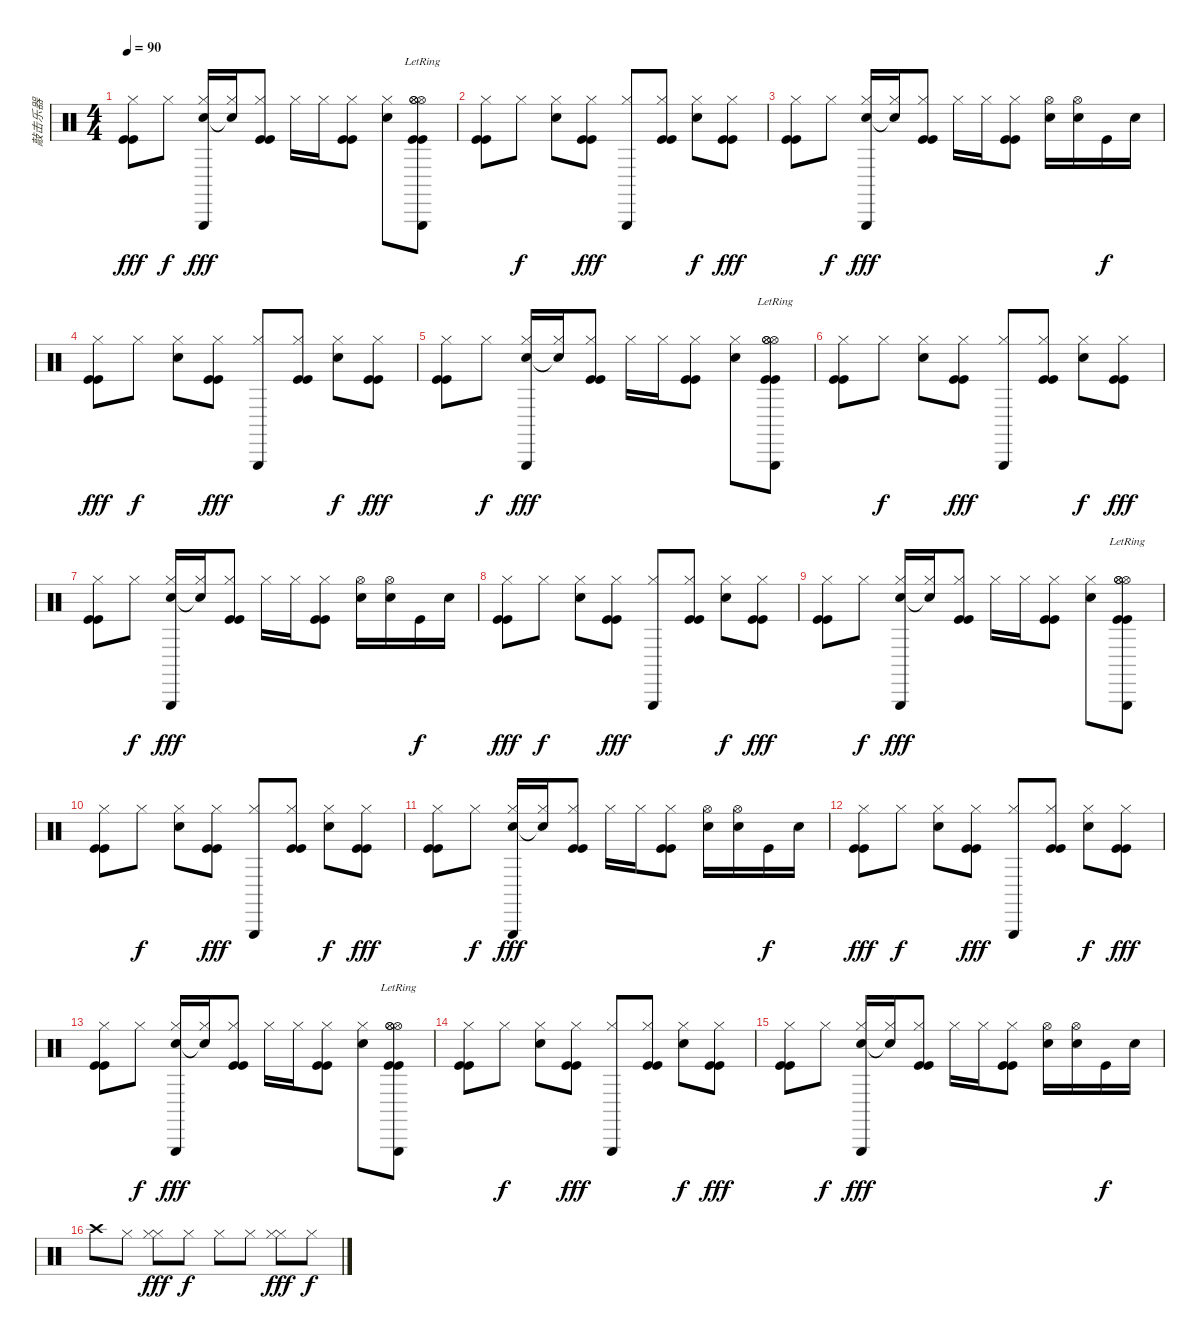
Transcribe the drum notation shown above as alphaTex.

\track ("敲击乐器" "敲击乐器") {instrument percussion}
\staff {score}
\articulation defaults
\ts (4 4)
\tempo 90
\clef neutral
\ks c
("Hi-Hat (closed)" "Kick (hit)" "Kick (hit)").8{dy fff} "Hi-Hat (closed)".8{dy f} ("Hi-Hat (closed)" "Electric Snare (hit)" "Triangle (hit)").16{dy fff} ("Hi-Hat (closed)" "Snare (hit)"{t}).16 ("Hi-Hat (closed)" "Kick (hit)" "Kick (hit)").8 "Hi-Hat (closed)".16 "Hi-Hat (closed)".16 ("Hi-Hat (closed)" "Kick (hit)" "Kick (hit)").8 ("Hi-Hat (closed)" "Electric Snare (hit)").8 ("Hi-Hat (open)" "Hi-Hat (open)" "Hi-Hat (open)" "Triangle (hit)"{lr} "Kick (hit)" "Kick (hit)").8 |
("Hi-Hat (closed)" "Kick (hit)" "Kick (hit)").8 "Hi-Hat (closed)".8{dy f} ("Hi-Hat (closed)" "Electric Snare (hit)").8 ("Hi-Hat (closed)" "Kick (hit)" "Kick (hit)").8{dy fff} ("Hi-Hat (closed)" "Triangle (hit)").8 ("Hi-Hat (closed)" "Kick (hit)" "Kick (hit)").8 ("Hi-Hat (closed)" "Electric Snare (hit)").8{dy f} ("Hi-Hat (closed)" "Kick (hit)" "Kick (hit)").8{dy fff} |
("Hi-Hat (closed)" "Kick (hit)" "Kick (hit)").8 "Hi-Hat (closed)".8{dy f} ("Hi-Hat (closed)" "Electric Snare (hit)" "Triangle (hit)").16{dy fff} ("Hi-Hat (closed)" "Snare (hit)"{t}).16 ("Hi-Hat (closed)" "Kick (hit)" "Kick (hit)").8 "Hi-Hat (closed)".16 "Hi-Hat (closed)".16 ("Hi-Hat (closed)" "Kick (hit)" "Kick (hit)").8 ("Hi-Hat (open)" "Electric Snare (hit)").16 ("Hi-Hat (open)" "Electric Snare (hit)").16 "Kick (hit)".16{dy f} "Electric Snare (hit)".16 |
("Hi-Hat (closed)" "Kick (hit)" "Kick (hit)").8{dy fff} "Hi-Hat (closed)".8{dy f} ("Hi-Hat (closed)" "Electric Snare (hit)").8 ("Hi-Hat (closed)" "Kick (hit)" "Kick (hit)").8{dy fff} ("Hi-Hat (closed)" "Triangle (hit)").8 ("Hi-Hat (closed)" "Kick (hit)" "Kick (hit)").8 ("Hi-Hat (closed)" "Electric Snare (hit)").8{dy f} ("Hi-Hat (closed)" "Kick (hit)" "Kick (hit)").8{dy fff} |
("Hi-Hat (closed)" "Kick (hit)" "Kick (hit)").8 "Hi-Hat (closed)".8{dy f} ("Hi-Hat (closed)" "Electric Snare (hit)" "Triangle (hit)").16{dy fff} ("Hi-Hat (closed)" "Snare (hit)"{t}).16 ("Hi-Hat (closed)" "Kick (hit)" "Kick (hit)").8 "Hi-Hat (closed)".16 "Hi-Hat (closed)".16 ("Hi-Hat (closed)" "Kick (hit)" "Kick (hit)").8 ("Hi-Hat (closed)" "Electric Snare (hit)").8 ("Hi-Hat (open)" "Hi-Hat (open)" "Hi-Hat (open)" "Triangle (hit)"{lr} "Kick (hit)" "Kick (hit)").8 |
("Hi-Hat (closed)" "Kick (hit)" "Kick (hit)").8 "Hi-Hat (closed)".8{dy f} ("Hi-Hat (closed)" "Electric Snare (hit)").8 ("Hi-Hat (closed)" "Kick (hit)" "Kick (hit)").8{dy fff} ("Hi-Hat (closed)" "Triangle (hit)").8 ("Hi-Hat (closed)" "Kick (hit)" "Kick (hit)").8 ("Hi-Hat (closed)" "Electric Snare (hit)").8{dy f} ("Hi-Hat (closed)" "Kick (hit)" "Kick (hit)").8{dy fff} |
("Hi-Hat (closed)" "Kick (hit)" "Kick (hit)").8 "Hi-Hat (closed)".8{dy f} ("Hi-Hat (closed)" "Electric Snare (hit)" "Triangle (hit)").16{dy fff} ("Hi-Hat (closed)" "Snare (hit)"{t}).16 ("Hi-Hat (closed)" "Kick (hit)" "Kick (hit)").8 "Hi-Hat (closed)".16 "Hi-Hat (closed)".16 ("Hi-Hat (closed)" "Kick (hit)" "Kick (hit)").8 ("Hi-Hat (open)" "Electric Snare (hit)").16 ("Hi-Hat (open)" "Electric Snare (hit)").16 "Kick (hit)".16{dy f} "Electric Snare (hit)".16 |
("Hi-Hat (closed)" "Kick (hit)" "Kick (hit)").8{dy fff} "Hi-Hat (closed)".8{dy f} ("Hi-Hat (closed)" "Electric Snare (hit)").8 ("Hi-Hat (closed)" "Kick (hit)" "Kick (hit)").8{dy fff} ("Hi-Hat (closed)" "Triangle (hit)").8 ("Hi-Hat (closed)" "Kick (hit)" "Kick (hit)").8 ("Hi-Hat (closed)" "Electric Snare (hit)").8{dy f} ("Hi-Hat (closed)" "Kick (hit)" "Kick (hit)").8{dy fff} |
("Hi-Hat (closed)" "Kick (hit)" "Kick (hit)").8 "Hi-Hat (closed)".8{dy f} ("Hi-Hat (closed)" "Electric Snare (hit)" "Triangle (hit)").16{dy fff} ("Hi-Hat (closed)" "Snare (hit)"{t}).16 ("Hi-Hat (closed)" "Kick (hit)" "Kick (hit)").8 "Hi-Hat (closed)".16 "Hi-Hat (closed)".16 ("Hi-Hat (closed)" "Kick (hit)" "Kick (hit)").8 ("Hi-Hat (closed)" "Electric Snare (hit)").8 ("Hi-Hat (open)" "Hi-Hat (open)" "Hi-Hat (open)" "Triangle (hit)"{lr} "Kick (hit)" "Kick (hit)").8 |
("Hi-Hat (closed)" "Kick (hit)" "Kick (hit)").8 "Hi-Hat (closed)".8{dy f} ("Hi-Hat (closed)" "Electric Snare (hit)").8 ("Hi-Hat (closed)" "Kick (hit)" "Kick (hit)").8{dy fff} ("Hi-Hat (closed)" "Triangle (hit)").8 ("Hi-Hat (closed)" "Kick (hit)" "Kick (hit)").8 ("Hi-Hat (closed)" "Electric Snare (hit)").8{dy f} ("Hi-Hat (closed)" "Kick (hit)" "Kick (hit)").8{dy fff} |
("Hi-Hat (closed)" "Kick (hit)" "Kick (hit)").8 "Hi-Hat (closed)".8{dy f} ("Hi-Hat (closed)" "Electric Snare (hit)" "Triangle (hit)").16{dy fff} ("Hi-Hat (closed)" "Snare (hit)"{t}).16 ("Hi-Hat (closed)" "Kick (hit)" "Kick (hit)").8 "Hi-Hat (closed)".16 "Hi-Hat (closed)".16 ("Hi-Hat (closed)" "Kick (hit)" "Kick (hit)").8 ("Hi-Hat (open)" "Electric Snare (hit)").16 ("Hi-Hat (open)" "Electric Snare (hit)").16 "Kick (hit)".16{dy f} "Electric Snare (hit)".16 |
("Hi-Hat (closed)" "Kick (hit)" "Kick (hit)").8{dy fff} "Hi-Hat (closed)".8{dy f} ("Hi-Hat (closed)" "Electric Snare (hit)").8 ("Hi-Hat (closed)" "Kick (hit)" "Kick (hit)").8{dy fff} ("Hi-Hat (closed)" "Triangle (hit)").8 ("Hi-Hat (closed)" "Kick (hit)" "Kick (hit)").8 ("Hi-Hat (closed)" "Electric Snare (hit)").8{dy f} ("Hi-Hat (closed)" "Kick (hit)" "Kick (hit)").8{dy fff} |
("Hi-Hat (closed)" "Kick (hit)" "Kick (hit)").8 "Hi-Hat (closed)".8{dy f} ("Hi-Hat (closed)" "Electric Snare (hit)" "Triangle (hit)").16{dy fff} ("Hi-Hat (closed)" "Snare (hit)"{t}).16 ("Hi-Hat (closed)" "Kick (hit)" "Kick (hit)").8 "Hi-Hat (closed)".16 "Hi-Hat (closed)".16 ("Hi-Hat (closed)" "Kick (hit)" "Kick (hit)").8 ("Hi-Hat (closed)" "Electric Snare (hit)").8 ("Hi-Hat (open)" "Hi-Hat (open)" "Hi-Hat (open)" "Triangle (hit)"{lr} "Kick (hit)" "Kick (hit)").8 |
("Hi-Hat (closed)" "Kick (hit)" "Kick (hit)").8 "Hi-Hat (closed)".8{dy f} ("Hi-Hat (closed)" "Electric Snare (hit)").8 ("Hi-Hat (closed)" "Kick (hit)" "Kick (hit)").8{dy fff} ("Hi-Hat (closed)" "Triangle (hit)").8 ("Hi-Hat (closed)" "Kick (hit)" "Kick (hit)").8 ("Hi-Hat (closed)" "Electric Snare (hit)").8{dy f} ("Hi-Hat (closed)" "Kick (hit)" "Kick (hit)").8{dy fff} |
("Hi-Hat (closed)" "Kick (hit)" "Kick (hit)").8 "Hi-Hat (closed)".8{dy f} ("Hi-Hat (closed)" "Electric Snare (hit)" "Triangle (hit)").16{dy fff} ("Hi-Hat (closed)" "Snare (hit)"{t}).16 ("Hi-Hat (closed)" "Kick (hit)" "Kick (hit)").8 "Hi-Hat (closed)".16 "Hi-Hat (closed)".16 ("Hi-Hat (closed)" "Kick (hit)" "Kick (hit)").8 ("Hi-Hat (open)" "Electric Snare (hit)").16 ("Hi-Hat (open)" "Electric Snare (hit)").16 "Kick (hit)".16{dy f} "Electric Snare (hit)".16 |
"Crash high (hit)".8 "Hi-Hat (closed)".8 ("Hi-Hat (closed)" "Hi-Hat (closed)").8{dy fff} "Hi-Hat (closed)".8{dy f} "Hi-Hat (closed)".8 "Hi-Hat (closed)".8 ("Hi-Hat (closed)" "Hi-Hat (closed)").8{dy fff} "Hi-Hat (closed)".8{dy f}
